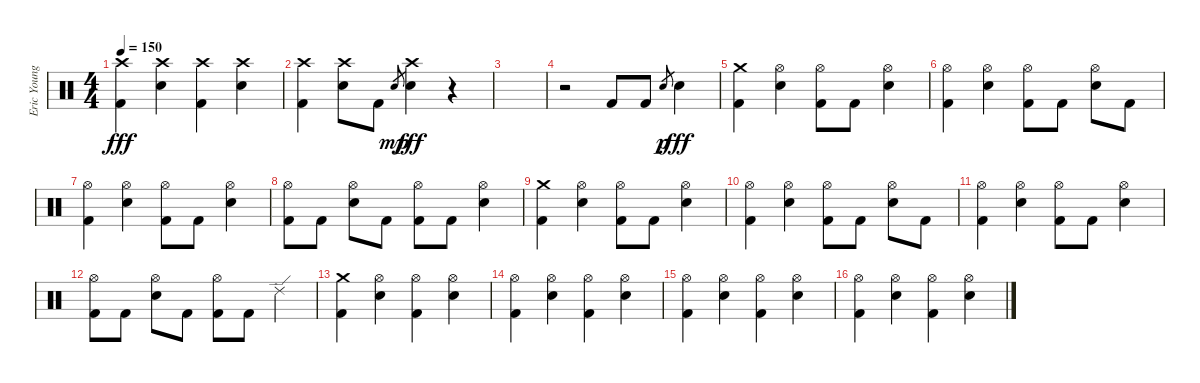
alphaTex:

\track ("Eric Young" "Eric Young") {instrument percussion}
\staff {score}
\articulation defaults
\ts (4 4)
\tempo 150
\clef neutral
\ks c
("Crash high (hit)" "Kick (hit) 2").4{dy fff} ("Crash high (hit)" "Electric Snare (hit)").4 ("Crash high (hit)" "Kick (hit) 2").4 ("Crash high (hit)" "Electric Snare (hit)").4 |
("Crash high (hit)" "Kick (hit) 2").4 ("Crash high (hit)" "Electric Snare (hit)").8 "Kick (hit) 2".8 "Electric Snare (hit)".8{gr dy mp} ("Crash high (hit)" "Electric Snare (hit)").4{dy fff} r.4 |
|
r.2 "Kick (hit) 2".8 "Kick (hit) 2".8 "Electric Snare (hit)".8{gr dy p} "Electric Snare (hit)".4{dy fff} |
("Crash medium (hit)" "Kick (hit) 2").4 ("Hi-Hat (open)" "Electric Snare (hit)").4 ("Hi-Hat (open)" "Kick (hit) 2").8 "Kick (hit) 2".8 ("Hi-Hat (open)" "Electric Snare (hit)").4 |
("Hi-Hat (open)" "Kick (hit) 2").4 ("Hi-Hat (open)" "Electric Snare (hit)").4 ("Hi-Hat (open)" "Kick (hit) 2").8 "Kick (hit) 2".8 ("Hi-Hat (open)" "Electric Snare (hit)").8 "Kick (hit) 2".8 |
("Hi-Hat (open)" "Kick (hit) 2").4 ("Hi-Hat (open)" "Electric Snare (hit)").4 ("Hi-Hat (open)" "Kick (hit) 2").8 "Kick (hit) 2".8 ("Hi-Hat (open)" "Electric Snare (hit)").4 |
("Hi-Hat (open)" "Kick (hit) 2").8 "Kick (hit) 2".8 ("Hi-Hat (open)" "Electric Snare (hit)").8 "Kick (hit) 2".8 ("Hi-Hat (open)" "Kick (hit) 2").8 "Kick (hit) 2".8 ("Hi-Hat (open)" "Electric Snare (hit)").4 |
("Crash medium (hit)" "Kick (hit) 2").4 ("Hi-Hat (open)" "Electric Snare (hit)").4 ("Hi-Hat (open)" "Kick (hit) 2").8 "Kick (hit) 2".8 ("Hi-Hat (open)" "Electric Snare (hit)").4 |
("Hi-Hat (open)" "Kick (hit) 2").4 ("Hi-Hat (open)" "Electric Snare (hit)").4 ("Hi-Hat (open)" "Kick (hit) 2").8 "Kick (hit) 2".8 ("Hi-Hat (open)" "Electric Snare (hit)").8 "Kick (hit) 2".8 |
("Hi-Hat (open)" "Kick (hit) 2").4 ("Hi-Hat (open)" "Electric Snare (hit)").4 ("Hi-Hat (open)" "Kick (hit) 2").8 "Kick (hit) 2".8 ("Hi-Hat (open)" "Electric Snare (hit)").4 |
("Hi-Hat (open)" "Kick (hit) 2").8 "Kick (hit) 2".8 ("Hi-Hat (open)" "Electric Snare (hit)").8 "Kick (hit) 2".8 ("Hi-Hat (open)" "Kick (hit) 2").8 "Kick (hit) 2".8 "Ride (edge) 2".4 |
("Crash medium (hit)" "Kick (hit) 2").4 ("Hi-Hat (open)" "Electric Snare (hit)").4 ("Hi-Hat (open)" "Kick (hit) 2").4 ("Hi-Hat (open)" "Electric Snare (hit)").4 |
("Hi-Hat (open)" "Kick (hit) 2").4 ("Hi-Hat (open)" "Electric Snare (hit)").4 ("Hi-Hat (open)" "Kick (hit) 2").4 ("Hi-Hat (open)" "Electric Snare (hit)").4 |
("Hi-Hat (open)" "Kick (hit) 2").4 ("Hi-Hat (open)" "Electric Snare (hit)").4 ("Hi-Hat (open)" "Kick (hit) 2").4 ("Hi-Hat (open)" "Electric Snare (hit)").4 |
("Hi-Hat (open)" "Kick (hit) 2").4 ("Hi-Hat (open)" "Electric Snare (hit)").4 ("Hi-Hat (open)" "Kick (hit) 2").4 ("Hi-Hat (open)" "Electric Snare (hit)").4
